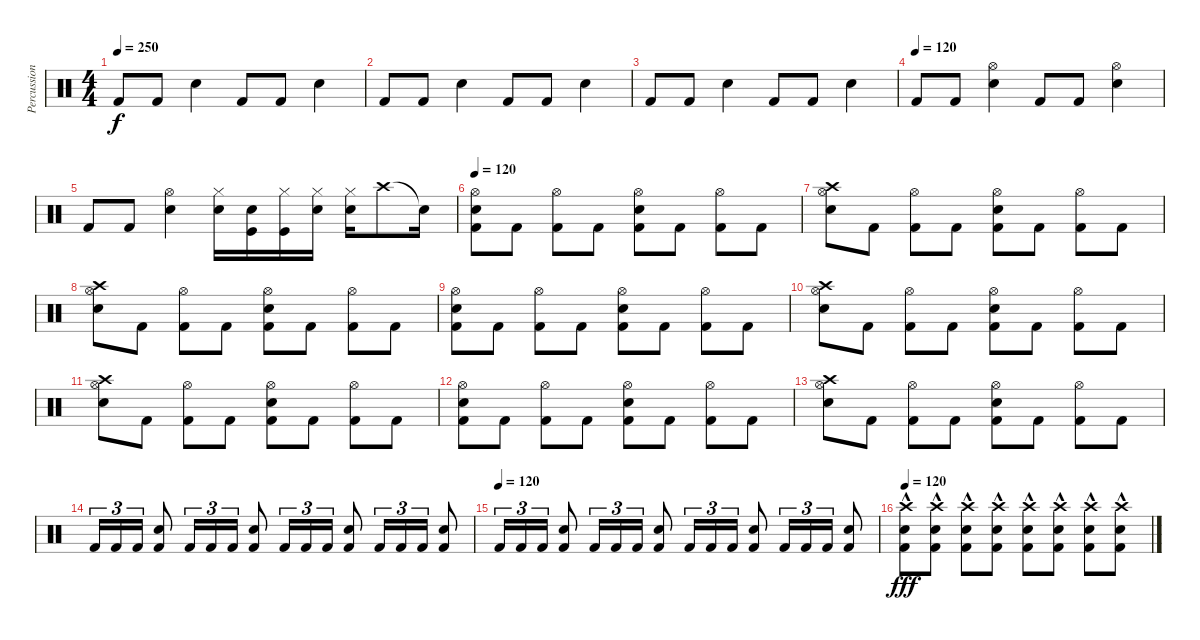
\track ("Percussion" "Percussion") {instrument percussion}
\staff {score}
\articulation defaults
\ts (4 4)
\tempo 250
\clef neutral
\ks c "Kick (hit) 2".8{dy f} "Kick (hit) 2".8 "Electric Snare (hit)".4 "Kick (hit) 2".8 "Kick (hit) 2".8 "Electric Snare (hit)".4
|
"Kick (hit) 2".8 "Kick (hit) 2".8 "Electric Snare (hit)".4 "Kick (hit) 2".8 "Kick (hit) 2".8 "Electric Snare (hit)".4 |
"Kick (hit) 2".8 "Kick (hit) 2".8 "Electric Snare (hit)".4 "Kick (hit) 2".8 "Kick (hit) 2".8 "Electric Snare (hit)".4 |
\tempo 110
\tempo (120)
"Kick (hit) 2".8 "Kick (hit) 2".8 ("Hi-Hat (open)" "Electric Snare (hit)").4 "Kick (hit) 2".8 "Kick (hit) 2".8 ("Hi-Hat (open)" "Electric Snare (hit)").4 |
"Kick (hit) 2".8 "Kick (hit) 2".8 ("Hi-Hat (open)" "Electric Snare (hit)").4 ("Electric Snare (hit)" "Hi-Hat (closed)").16 ("Electric Snare (hit)" "Kick (hit)").16 ("Hi-Hat (closed)" "Kick (hit)").16 ("Electric Snare (hit)" "Hi-Hat (closed)").16 ("Hi-Hat (closed)" "Electric Snare (hit)").16 "Crash high (hit)".8 "Snare (hit)"{t}.16 |
\tempo 120
("Hi-Hat (open)" "Electric Snare (hit)" "Kick (hit) 2").8 "Kick (hit) 2".8 ("Hi-Hat (open)" "Kick (hit) 2").8 "Kick (hit) 2".8 ("Hi-Hat (open)" "Electric Snare (hit)" "Kick (hit) 2").8 "Kick (hit) 2".8 ("Hi-Hat (open)" "Kick (hit) 2").8 "Kick (hit) 2".8 |
("Hi-Hat (open)" "Electric Snare (hit)" "Crash high (hit)").8 "Kick (hit) 2".8 ("Hi-Hat (open)" "Kick (hit) 2").8 "Kick (hit) 2".8 ("Hi-Hat (open)" "Electric Snare (hit)" "Kick (hit) 2").8 "Kick (hit) 2".8 ("Hi-Hat (open)" "Kick (hit) 2").8 "Kick (hit) 2".8 |
("Hi-Hat (open)" "Electric Snare (hit)" "Crash high (hit)").8 "Kick (hit) 2".8 ("Hi-Hat (open)" "Kick (hit) 2").8 "Kick (hit) 2".8 ("Hi-Hat (open)" "Electric Snare (hit)" "Kick (hit) 2").8 "Kick (hit) 2".8 ("Hi-Hat (open)" "Kick (hit) 2").8 "Kick (hit) 2".8 |
("Hi-Hat (open)" "Electric Snare (hit)" "Kick (hit) 2").8 "Kick (hit) 2".8 ("Hi-Hat (open)" "Kick (hit) 2").8 "Kick (hit) 2".8 ("Hi-Hat (open)" "Electric Snare (hit)" "Kick (hit) 2").8 "Kick (hit) 2".8 ("Hi-Hat (open)" "Kick (hit) 2").8 "Kick (hit) 2".8 |
("Hi-Hat (open)" "Electric Snare (hit)" "Crash high (hit)").8 "Kick (hit) 2".8 ("Hi-Hat (open)" "Kick (hit) 2").8 "Kick (hit) 2".8 ("Hi-Hat (open)" "Electric Snare (hit)" "Kick (hit) 2").8 "Kick (hit) 2".8 ("Hi-Hat (open)" "Kick (hit) 2").8 "Kick (hit) 2".8 |
("Hi-Hat (open)" "Electric Snare (hit)" "Crash high (hit)").8 "Kick (hit) 2".8 ("Hi-Hat (open)" "Kick (hit) 2").8 "Kick (hit) 2".8 ("Hi-Hat (open)" "Electric Snare (hit)" "Kick (hit) 2").8 "Kick (hit) 2".8 ("Hi-Hat (open)" "Kick (hit) 2").8 "Kick (hit) 2".8 |
("Hi-Hat (open)" "Electric Snare (hit)" "Kick (hit) 2").8 "Kick (hit) 2".8 ("Hi-Hat (open)" "Kick (hit) 2").8 "Kick (hit) 2".8 ("Hi-Hat (open)" "Electric Snare (hit)" "Kick (hit) 2").8 "Kick (hit) 2".8 ("Hi-Hat (open)" "Kick (hit) 2").8 "Kick (hit) 2".8 |
("Hi-Hat (open)" "Electric Snare (hit)" "Crash high (hit)").8 "Kick (hit) 2".8 ("Hi-Hat (open)" "Kick (hit) 2").8 "Kick (hit) 2".8 ("Hi-Hat (open)" "Electric Snare (hit)" "Kick (hit) 2").8 "Kick (hit) 2".8 ("Hi-Hat (open)" "Kick (hit) 2").8 "Kick (hit) 2".8 |
"Kick (hit) 2".16{tu (3 2)} "Kick (hit) 2".16{tu (3 2)} "Kick (hit) 2".16{tu (3 2)} ("Electric Snare (hit)" "Kick (hit) 2").8 "Kick (hit) 2".16{tu (3 2)} "Kick (hit) 2".16{tu (3 2)} "Kick (hit) 2".16{tu (3 2)} ("Electric Snare (hit)" "Kick (hit) 2").8 "Kick (hit) 2".16{tu (3 2)} "Kick (hit) 2".16{tu (3 2)} "Kick (hit) 2".16{tu (3 2)} ("Electric Snare (hit)" "Kick (hit) 2").8 "Kick (hit) 2".16{tu (3 2)} "Kick (hit) 2".16{tu (3 2)} "Kick (hit) 2".16{tu (3 2)} ("Electric Snare (hit)" "Kick (hit) 2").8 |
\tempo 250
\tempo (120)
"Kick (hit) 2".16{tu (3 2)} "Kick (hit) 2".16{tu (3 2)} "Kick (hit) 2".16{tu (3 2)} ("Electric Snare (hit)" "Kick (hit) 2").8 "Kick (hit) 2".16{tu (3 2)} "Kick (hit) 2".16{tu (3 2)} "Kick (hit) 2".16{tu (3 2)} ("Electric Snare (hit)" "Kick (hit) 2").8 "Kick (hit) 2".16{tu (3 2)} "Kick (hit) 2".16{tu (3 2)} "Kick (hit) 2".16{tu (3 2)} ("Electric Snare (hit)" "Kick (hit) 2").8 "Kick (hit) 2".16{tu (3 2)} "Kick (hit) 2".16{tu (3 2)} "Kick (hit) 2".16{tu (3 2)} ("Electric Snare (hit)" "Kick (hit) 2").8 |
\tempo 120
("Crash high (hit)"{hac} "Electric Snare (hit)"{hac} "Kick (hit) 2"{hac}).8{dy fff} ("Crash high (hit)"{hac} "Electric Snare (hit)"{hac} "Kick (hit) 2"{hac}).8 ("Crash high (hit)"{hac} "Electric Snare (hit)"{hac} "Kick (hit) 2"{hac}).8 ("Crash high (hit)"{hac} "Electric Snare (hit)"{hac} "Kick (hit) 2"{hac}).8 ("Crash high (hit)"{hac} "Electric Snare (hit)"{hac} "Kick (hit) 2"{hac}).8 ("Crash high (hit)"{hac} "Electric Snare (hit)"{hac} "Kick (hit) 2"{hac}).8 ("Crash high (hit)"{hac} "Electric Snare (hit)"{hac} "Kick (hit) 2"{hac}).8 ("Crash high (hit)"{hac} "Electric Snare (hit)"{hac} "Kick (hit) 2"{hac}).8
